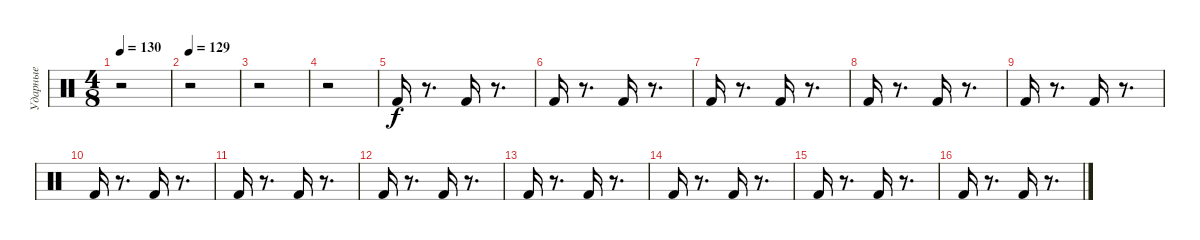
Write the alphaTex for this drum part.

\track ("Ударные" "Ударные") {instrument percussion}
\staff {score}
\articulation defaults
\ts (4 8)
\tempo 130
\clef neutral
\ks c
r.2{dy f} |
\tempo 129
r.2 |
r.2 |
r.2 |
"Kick (hit) 2".16 r.8{d} "Kick (hit) 2".16 r.8{d} |
"Kick (hit) 2".16 r.8{d} "Kick (hit) 2".16 r.8{d} |
"Kick (hit) 2".16 r.8{d} "Kick (hit) 2".16 r.8{d} |
"Kick (hit) 2".16 r.8{d} "Kick (hit) 2".16 r.8{d} |
"Kick (hit) 2".16 r.8{d} "Kick (hit) 2".16 r.8{d} |
"Kick (hit) 2".16 r.8{d} "Kick (hit) 2".16 r.8{d} |
"Kick (hit) 2".16 r.8{d} "Kick (hit) 2".16 r.8{d} |
"Kick (hit) 2".16 r.8{d} "Kick (hit) 2".16 r.8{d} |
"Kick (hit) 2".16 r.8{d} "Kick (hit) 2".16 r.8{d} |
"Kick (hit) 2".16 r.8{d} "Kick (hit) 2".16 r.8{d} |
"Kick (hit) 2".16 r.8{d} "Kick (hit) 2".16 r.8{d} |
"Kick (hit) 2".16 r.8{d} "Kick (hit) 2".16 r.8{d}
